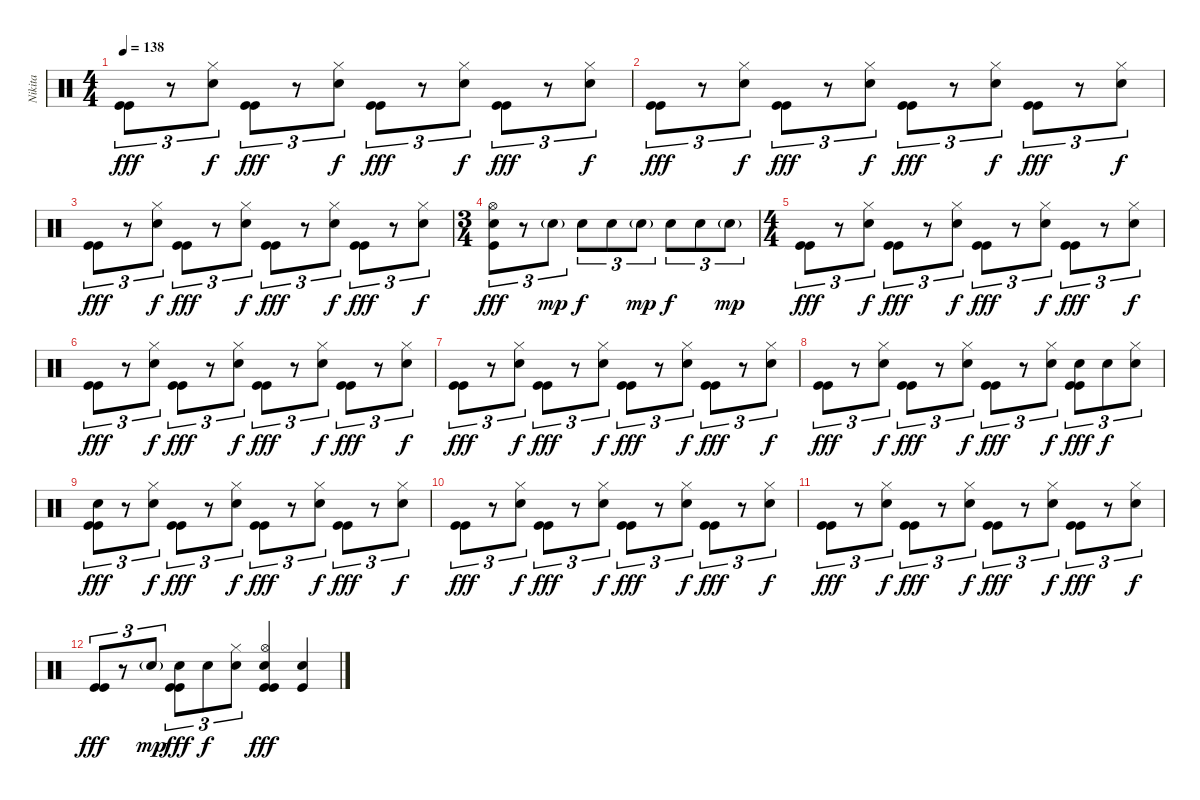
\track ("Nikita" "Nikita") {instrument percussion}
\staff {score}
\articulation defaults
\ts (4 4)
\tempo 138
\clef neutral
\ks c
("Kick (hit)" "Kick (hit)").8{tu (3 2) dy fff} r.8{tu (3 2)} ("Snare (hit) 2" "Hi-Hat (closed)").8{tu (3 2) dy f} ("Kick (hit)" "Kick (hit)").8{tu (3 2) dy fff} r.8{tu (3 2)} ("Snare (hit) 2" "Hi-Hat (closed)").8{tu (3 2) dy f} ("Kick (hit)" "Kick (hit)").8{tu (3 2) dy fff} r.8{tu (3 2)} ("Snare (hit) 2" "Hi-Hat (closed)").8{tu (3 2) dy f} ("Kick (hit)" "Kick (hit)").8{tu (3 2) dy fff} r.8{tu (3 2)} ("Snare (hit) 2" "Hi-Hat (closed)").8{tu (3 2) dy f} |
("Kick (hit)" "Kick (hit)").8{tu (3 2) dy fff} r.8{tu (3 2)} ("Snare (hit) 2" "Hi-Hat (closed)").8{tu (3 2) dy f} ("Kick (hit)" "Kick (hit)").8{tu (3 2) dy fff} r.8{tu (3 2)} ("Snare (hit) 2" "Hi-Hat (closed)").8{tu (3 2) dy f} ("Kick (hit)" "Kick (hit)").8{tu (3 2) dy fff} r.8{tu (3 2)} ("Snare (hit) 2" "Hi-Hat (closed)").8{tu (3 2) dy f} ("Kick (hit)" "Kick (hit)").8{tu (3 2) dy fff} r.8{tu (3 2)} ("Snare (hit) 2" "Hi-Hat (closed)").8{tu (3 2) dy f} |
("Kick (hit)" "Kick (hit)").8{tu (3 2) dy fff} r.8{tu (3 2)} ("Snare (hit) 2" "Hi-Hat (closed)").8{tu (3 2) dy f} ("Kick (hit)" "Kick (hit)").8{tu (3 2) dy fff} r.8{tu (3 2)} ("Snare (hit) 2" "Hi-Hat (closed)").8{tu (3 2) dy f} ("Kick (hit)" "Kick (hit)").8{tu (3 2) dy fff} r.8{tu (3 2)} ("Snare (hit) 2" "Hi-Hat (closed)").8{tu (3 2) dy f} ("Kick (hit)" "Kick (hit)").8{tu (3 2) dy fff} r.8{tu (3 2)} ("Snare (hit) 2" "Hi-Hat (closed)").8{tu (3 2) dy f} |
\ts (3 4)
("Kick (hit)" "Snare (hit) 2" "Hi-Hat (open)").8{tu (3 2) dy fff} r.8{tu (3 2)} "Snare (hit) 2"{g}.8{tu (3 2) dy mp} "Snare (hit) 2".8{tu (3 2) dy f} "Snare (hit) 2".8{tu (3 2)} "Snare (hit) 2"{g}.8{tu (3 2) dy mp} "Snare (hit) 2".8{tu (3 2) dy f} "Snare (hit) 2".8{tu (3 2)} "Snare (hit) 2"{g}.8{tu (3 2) dy mp} |
\ts (4 4)
("Kick (hit)" "Kick (hit)").8{tu (3 2) dy fff} r.8{tu (3 2)} ("Snare (hit) 2" "Hi-Hat (closed)").8{tu (3 2) dy f} ("Kick (hit)" "Kick (hit)").8{tu (3 2) dy fff} r.8{tu (3 2)} ("Snare (hit) 2" "Hi-Hat (closed)").8{tu (3 2) dy f} ("Kick (hit)" "Kick (hit)").8{tu (3 2) dy fff} r.8{tu (3 2)} ("Snare (hit) 2" "Hi-Hat (closed)").8{tu (3 2) dy f} ("Kick (hit)" "Kick (hit)").8{tu (3 2) dy fff} r.8{tu (3 2)} ("Snare (hit) 2" "Hi-Hat (closed)").8{tu (3 2) dy f} |
("Kick (hit)" "Kick (hit)").8{tu (3 2) dy fff} r.8{tu (3 2)} ("Snare (hit) 2" "Hi-Hat (closed)").8{tu (3 2) dy f} ("Kick (hit)" "Kick (hit)").8{tu (3 2) dy fff} r.8{tu (3 2)} ("Snare (hit) 2" "Hi-Hat (closed)").8{tu (3 2) dy f} ("Kick (hit)" "Kick (hit)").8{tu (3 2) dy fff} r.8{tu (3 2)} ("Snare (hit) 2" "Hi-Hat (closed)").8{tu (3 2) dy f} ("Kick (hit)" "Kick (hit)").8{tu (3 2) dy fff} r.8{tu (3 2)} ("Snare (hit) 2" "Hi-Hat (closed)").8{tu (3 2) dy f} |
("Kick (hit)" "Kick (hit)").8{tu (3 2) dy fff} r.8{tu (3 2)} ("Snare (hit) 2" "Hi-Hat (closed)").8{tu (3 2) dy f} ("Kick (hit)" "Kick (hit)").8{tu (3 2) dy fff} r.8{tu (3 2)} ("Snare (hit) 2" "Hi-Hat (closed)").8{tu (3 2) dy f} ("Kick (hit)" "Kick (hit)").8{tu (3 2) dy fff} r.8{tu (3 2)} ("Snare (hit) 2" "Hi-Hat (closed)").8{tu (3 2) dy f} ("Kick (hit)" "Kick (hit)").8{tu (3 2) dy fff} r.8{tu (3 2)} ("Snare (hit) 2" "Hi-Hat (closed)").8{tu (3 2) dy f} |
("Kick (hit)" "Kick (hit)").8{tu (3 2) dy fff} r.8{tu (3 2)} ("Snare (hit) 2" "Hi-Hat (closed)").8{tu (3 2) dy f} ("Kick (hit)" "Kick (hit)").8{tu (3 2) dy fff} r.8{tu (3 2)} ("Snare (hit) 2" "Hi-Hat (closed)").8{tu (3 2) dy f} ("Kick (hit)" "Kick (hit)").8{tu (3 2) dy fff} r.8{tu (3 2)} ("Electric Snare (hit)" "Hi-Hat (closed)").8{tu (3 2) dy f} ("Kick (hit)" "Kick (hit)" "Electric Snare (hit)").8{tu (3 2) dy fff} "Electric Snare (hit)".8{tu (3 2) dy f} ("Electric Snare (hit)" "Hi-Hat (closed)").8{tu (3 2)} |
("Kick (hit)" "Kick (hit)" "Electric Snare (hit)").8{tu (3 2) dy fff} r.8{tu (3 2)} ("Snare (hit) 2" "Hi-Hat (closed)").8{tu (3 2) dy f} ("Kick (hit)" "Kick (hit)").8{tu (3 2) dy fff} r.8{tu (3 2)} ("Snare (hit) 2" "Hi-Hat (closed)").8{tu (3 2) dy f} ("Kick (hit)" "Kick (hit)").8{tu (3 2) dy fff} r.8{tu (3 2)} ("Snare (hit) 2" "Hi-Hat (closed)").8{tu (3 2) dy f} ("Kick (hit)" "Kick (hit)").8{tu (3 2) dy fff} r.8{tu (3 2)} ("Snare (hit) 2" "Hi-Hat (closed)").8{tu (3 2) dy f} |
("Kick (hit)" "Kick (hit)").8{tu (3 2) dy fff} r.8{tu (3 2)} ("Snare (hit) 2" "Hi-Hat (closed)").8{tu (3 2) dy f} ("Kick (hit)" "Kick (hit)").8{tu (3 2) dy fff} r.8{tu (3 2)} ("Snare (hit) 2" "Hi-Hat (closed)").8{tu (3 2) dy f} ("Kick (hit)" "Kick (hit)").8{tu (3 2) dy fff} r.8{tu (3 2)} ("Snare (hit) 2" "Hi-Hat (closed)").8{tu (3 2) dy f} ("Kick (hit)" "Kick (hit)").8{tu (3 2) dy fff} r.8{tu (3 2)} ("Snare (hit) 2" "Hi-Hat (closed)").8{tu (3 2) dy f} |
("Kick (hit)" "Kick (hit)").8{tu (3 2) dy fff} r.8{tu (3 2)} ("Snare (hit) 2" "Hi-Hat (closed)").8{tu (3 2) dy f} ("Kick (hit)" "Kick (hit)").8{tu (3 2) dy fff} r.8{tu (3 2)} ("Snare (hit) 2" "Hi-Hat (closed)").8{tu (3 2) dy f} ("Kick (hit)" "Kick (hit)").8{tu (3 2) dy fff} r.8{tu (3 2)} ("Snare (hit) 2" "Hi-Hat (closed)").8{tu (3 2) dy f} ("Kick (hit)" "Kick (hit)").8{tu (3 2) dy fff} r.8{tu (3 2)} ("Snare (hit) 2" "Hi-Hat (closed)").8{tu (3 2) dy f} |
("Kick (hit)" "Kick (hit)").8{tu (3 2) dy fff} r.8{tu (3 2)} "Electric Snare (hit)"{g}.8{tu (3 2) dy mp} ("Kick (hit)" "Kick (hit)" "Electric Snare (hit)").8{tu (3 2) dy fff} "Electric Snare (hit)".8{tu (3 2) dy f} ("Electric Snare (hit)" "Hi-Hat (closed)").8{tu (3 2)} ("Kick (hit)" "Kick (hit)" "Electric Snare (hit)" "Hi-Hat (open)").4{dy fff} ("Kick (hit)" "Snare (hit) 2").4
